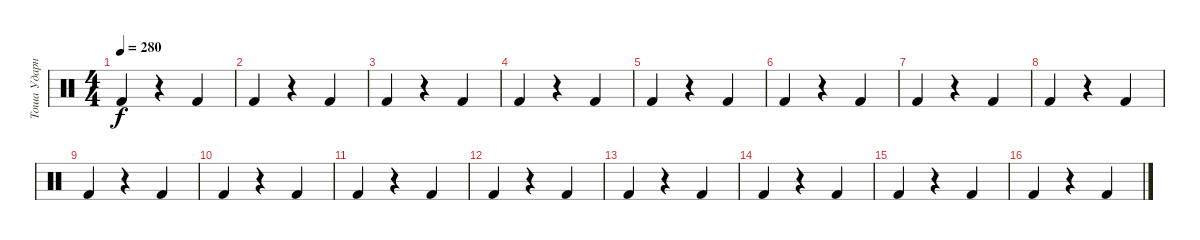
\track ("Тоша Ударные" "Тоша Ударн") {instrument percussion}
\staff {score}
\articulation defaults
\ts (4 4)
\tempo 280
\clef neutral
\ks c "Kick (hit) 2".4{dy f}
r.4 "Kick (hit) 2".4 |
"Kick (hit) 2".4 r.4 "Kick (hit) 2".4 |
"Kick (hit) 2".4 r.4 "Kick (hit) 2".4 |
"Kick (hit) 2".4 r.4 "Kick (hit) 2".4 |
"Kick (hit) 2".4 r.4 "Kick (hit) 2".4 |
"Kick (hit) 2".4 r.4 "Kick (hit) 2".4 |
"Kick (hit) 2".4 r.4 "Kick (hit) 2".4 |
"Kick (hit) 2".4 r.4 "Kick (hit) 2".4 |
"Kick (hit) 2".4 r.4 "Kick (hit) 2".4 |
"Kick (hit) 2".4 r.4 "Kick (hit) 2".4 |
"Kick (hit) 2".4 r.4 "Kick (hit) 2".4 |
"Kick (hit) 2".4 r.4 "Kick (hit) 2".4 |
"Kick (hit) 2".4 r.4 "Kick (hit) 2".4 |
"Kick (hit) 2".4 r.4 "Kick (hit) 2".4 |
"Kick (hit) 2".4 r.4 "Kick (hit) 2".4 |
"Kick (hit) 2".4 r.4 "Kick (hit) 2".4
